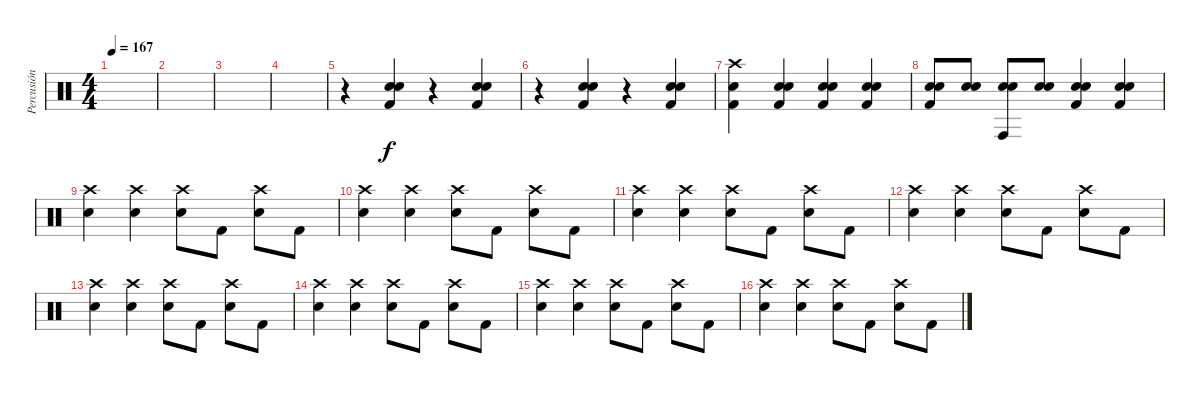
\track ("Percusión" "Percusión") {instrument percussion}
\staff {score}
\articulation defaults
\ts (4 4)
\tempo 167
\clef neutral
\ks c
|
|
|
|
r.4 ("Kick (hit) 2" "Electric Snare (hit)" "Electric Snare (hit)").4 r.4 ("Kick (hit) 2" "Electric Snare (hit)" "Electric Snare (hit)").4 |
r.4 ("Kick (hit) 2" "Electric Snare (hit)" "Electric Snare (hit)").4 r.4 ("Kick (hit) 2" "Electric Snare (hit)" "Electric Snare (hit)").4 |
("Kick (hit) 2" "Electric Snare (hit)" "Crash high (hit)").4 ("Kick (hit) 2" "Electric Snare (hit)" "Electric Snare (hit)").4 ("Kick (hit) 2" "Electric Snare (hit)" "Electric Snare (hit)").4 ("Kick (hit) 2" "Electric Snare (hit)" "Electric Snare (hit)").4 |
("Kick (hit) 2" "Electric Snare (hit)" "Electric Snare (hit)").8 ("Electric Snare (hit)" "Electric Snare (hit)").8 ("Conga high (hit)" "Electric Snare (hit)" "Electric Snare (hit)").8 ("Electric Snare (hit)" "Electric Snare (hit)").8 ("Kick (hit) 2" "Electric Snare (hit)" "Electric Snare (hit)").4 ("Kick (hit) 2" "Electric Snare (hit)" "Electric Snare (hit)").4 |
("Crash high (hit)" "Electric Snare (hit)").4 ("Crash high (hit)" "Electric Snare (hit)").4 ("Crash high (hit)" "Electric Snare (hit)").8 "Kick (hit) 2".8 ("Crash high (hit)" "Electric Snare (hit)").8 "Kick (hit) 2".8 |
("Crash high (hit)" "Electric Snare (hit)").4 ("Crash high (hit)" "Electric Snare (hit)").4 ("Crash high (hit)" "Electric Snare (hit)").8 "Kick (hit) 2".8 ("Crash high (hit)" "Electric Snare (hit)").8 "Kick (hit) 2".8 |
("Crash high (hit)" "Electric Snare (hit)").4 ("Crash high (hit)" "Electric Snare (hit)").4 ("Crash high (hit)" "Electric Snare (hit)").8 "Kick (hit) 2".8 ("Crash high (hit)" "Electric Snare (hit)").8 "Kick (hit) 2".8 |
("Crash high (hit)" "Electric Snare (hit)").4 ("Crash high (hit)" "Electric Snare (hit)").4 ("Crash high (hit)" "Electric Snare (hit)").8 "Kick (hit) 2".8 ("Crash high (hit)" "Electric Snare (hit)").8 "Kick (hit) 2".8 |
("Crash high (hit)" "Electric Snare (hit)").4 ("Crash high (hit)" "Electric Snare (hit)").4 ("Crash high (hit)" "Electric Snare (hit)").8 "Kick (hit) 2".8 ("Crash high (hit)" "Electric Snare (hit)").8 "Kick (hit) 2".8 |
("Crash high (hit)" "Electric Snare (hit)").4 ("Crash high (hit)" "Electric Snare (hit)").4 ("Crash high (hit)" "Electric Snare (hit)").8 "Kick (hit) 2".8 ("Crash high (hit)" "Electric Snare (hit)").8 "Kick (hit) 2".8 |
("Crash high (hit)" "Electric Snare (hit)").4 ("Crash high (hit)" "Electric Snare (hit)").4 ("Crash high (hit)" "Electric Snare (hit)").8 "Kick (hit) 2".8 ("Crash high (hit)" "Electric Snare (hit)").8 "Kick (hit) 2".8 |
("Crash high (hit)" "Electric Snare (hit)").4 ("Crash high (hit)" "Electric Snare (hit)").4 ("Crash high (hit)" "Electric Snare (hit)").8 "Kick (hit) 2".8 ("Crash high (hit)" "Electric Snare (hit)").8 "Kick (hit) 2".8
